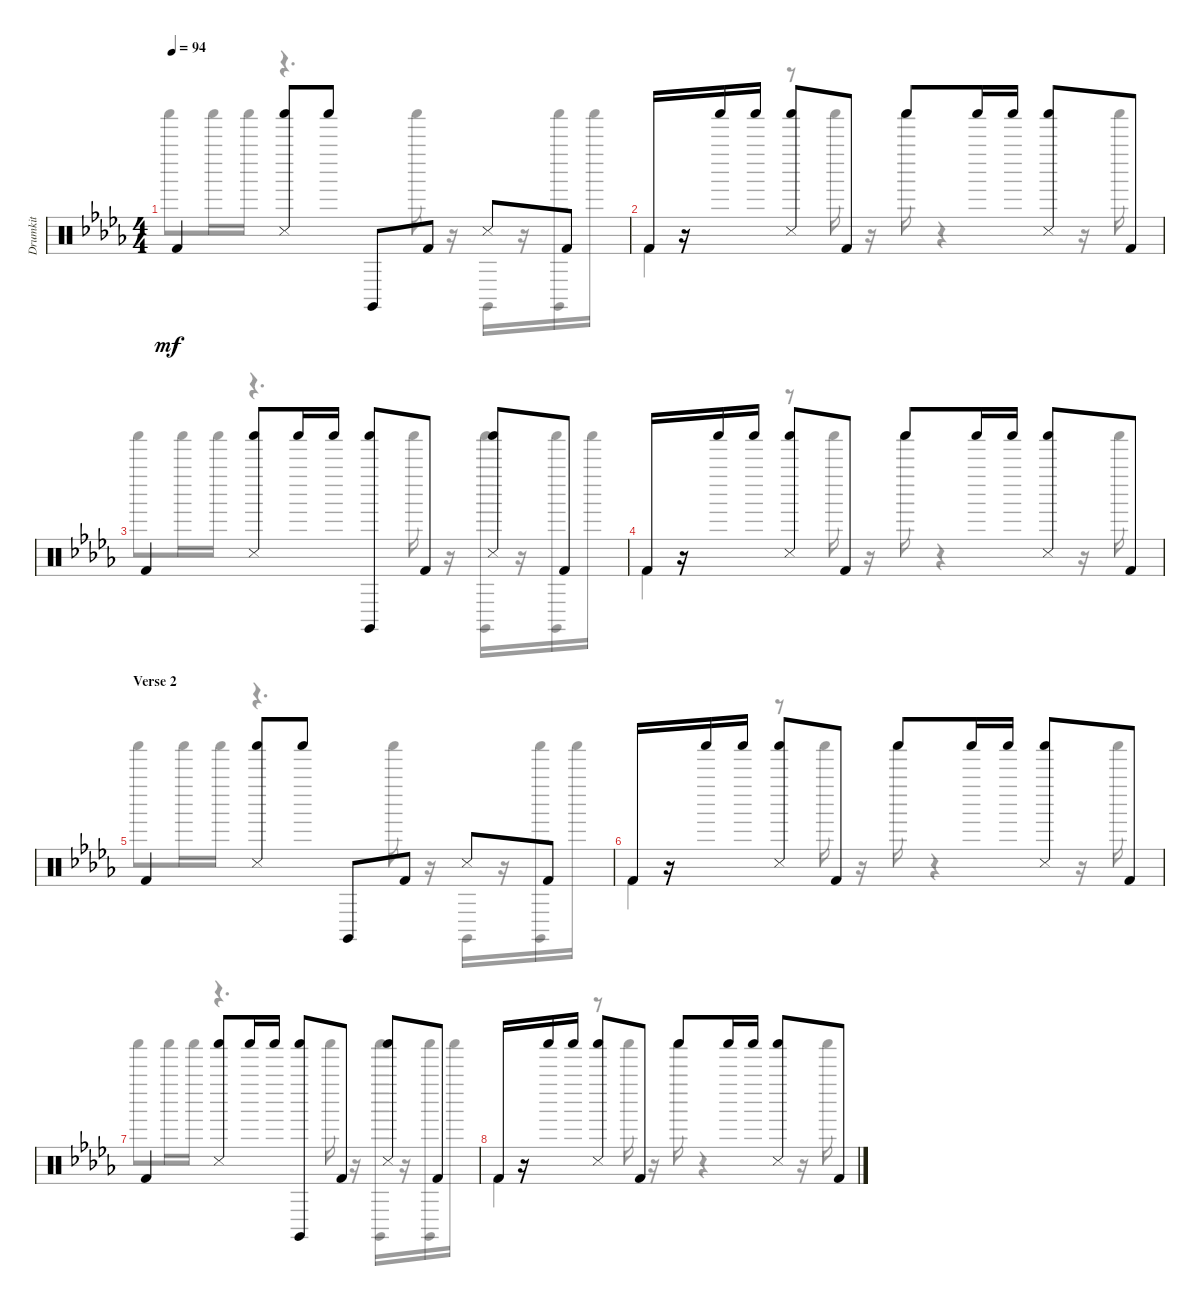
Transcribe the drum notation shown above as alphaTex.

\track ("Drumkit" "Drumkit") {instrument percussion}
\staff {score}
\articulation defaults
\voice
\ts (4 4)
\tempo 94
\clef neutral
\ks bbminor "Kick (hit) 2".4{dy mf}
("Shaker (hit)" "Snare (side stick) 3").8 "Shaker (hit)".8 "Claves (hit)".8 "Kick (hit) 2".8 "Snare (side stick) 3".8 "Kick (hit) 2".8 |
"Kick (hit) 2".16 r.16 "Shaker (hit)".16 "Shaker (hit)".16 ("Snare (side stick) 3" "Shaker (hit)").8 "Kick (hit) 2".8 "Shaker (hit)".8 "Shaker (hit)".16 "Shaker (hit)".16 ("Shaker (hit)" "Snare (side stick) 3").8 "Kick (hit) 2".8 |
"Kick (hit) 2".4 ("Snare (side stick) 3" "Shaker (hit)").8 "Shaker (hit)".16 "Shaker (hit)".16 ("Claves (hit)" "Shaker (hit)").8 "Kick (hit) 2".8 ("Snare (side stick) 3" "Shaker (hit)").8 "Kick (hit) 2".8 |
"Kick (hit) 2".16 r.16 "Shaker (hit)".16 "Shaker (hit)".16 ("Snare (side stick) 3" "Shaker (hit)").8 "Kick (hit) 2".8 "Shaker (hit)".8 "Shaker (hit)".16 "Shaker (hit)".16 ("Shaker (hit)" "Snare (side stick) 3").8 "Kick (hit) 2".8 |
\section ("" "Verse 2")
"Kick (hit) 2".4 ("Snare (side stick) 3" "Shaker (hit)").8 "Shaker (hit)".8 "Claves (hit)".8 "Kick (hit) 2".8 "Snare (side stick) 3".8 "Kick (hit) 2".8 |
"Kick (hit) 2".16 r.16 "Shaker (hit)".16 "Shaker (hit)".16 ("Snare (side stick) 3" "Shaker (hit)").8 "Kick (hit) 2".8 "Shaker (hit)".8 "Shaker (hit)".16 "Shaker (hit)".16 ("Shaker (hit)" "Snare (side stick) 3").8 "Kick (hit) 2".8 |
"Kick (hit) 2".4 ("Shaker (hit)" "Snare (side stick) 3").8 "Shaker (hit)".16 "Shaker (hit)".16 ("Shaker (hit)" "Claves (hit)").8 "Kick (hit) 2".8 ("Shaker (hit)" "Snare (side stick) 3").8 "Kick (hit) 2".8 |
"Kick (hit) 2".16 r.16 "Shaker (hit)".16 "Shaker (hit)".16 ("Shaker (hit)" "Snare (side stick) 3").8 "Kick (hit) 2".8 "Shaker (hit)".8 "Shaker (hit)".16 "Shaker (hit)".16 ("Snare (side stick) 3" "Shaker (hit)").8 "Kick (hit) 2".8
\voice
\clef neutral
\ottava regular
\simile none
\ks bbminor "Shaker (hit)".8{dy mf} "Shaker (hit)".16 "Shaker (hit)".16
r.4{d} "Shaker (hit)".16 r.16 "Claves (hit)".16 r.16 ("Shaker (hit)" "Claves (hit)").16 "Shaker (hit)".16 |
"Kick (hit) 2".4 r.8 "Shaker (hit)".16 r.16 "Shaker (hit)".16 r.4 r.16 "Shaker (hit)".16 |
"Shaker (hit)".8 "Shaker (hit)".16 "Shaker (hit)".16 r.4{d} "Shaker (hit)".16 r.16 ("Shaker (hit)" "Claves (hit)").16 r.16 ("Claves (hit)" "Shaker (hit)").16 "Shaker (hit)".16 |
"Kick (hit) 2".4 r.8 "Shaker (hit)".16 r.16 "Shaker (hit)".16 r.4 r.16 "Shaker (hit)".16 |
"Shaker (hit)".8 "Shaker (hit)".16 "Shaker (hit)".16 r.4{d} "Shaker (hit)".16 r.16 "Claves (hit)".16 r.16 ("Claves (hit)" "Shaker (hit)").16 "Shaker (hit)".16 |
"Kick (hit) 2".4 r.8 "Shaker (hit)".16 r.16 "Shaker (hit)".16 r.4 r.16 "Shaker (hit)".16 |
"Shaker (hit)".8 "Shaker (hit)".16 "Shaker (hit)".16 r.4{d} "Shaker (hit)".16 r.16 ("Shaker (hit)" "Claves (hit)").16 r.16 ("Claves (hit)" "Shaker (hit)").16 "Shaker (hit)".16 |
"Kick (hit) 2".4 r.8 "Shaker (hit)".16 r.16 "Shaker (hit)".16 r.4 r.16 "Shaker (hit)".16
